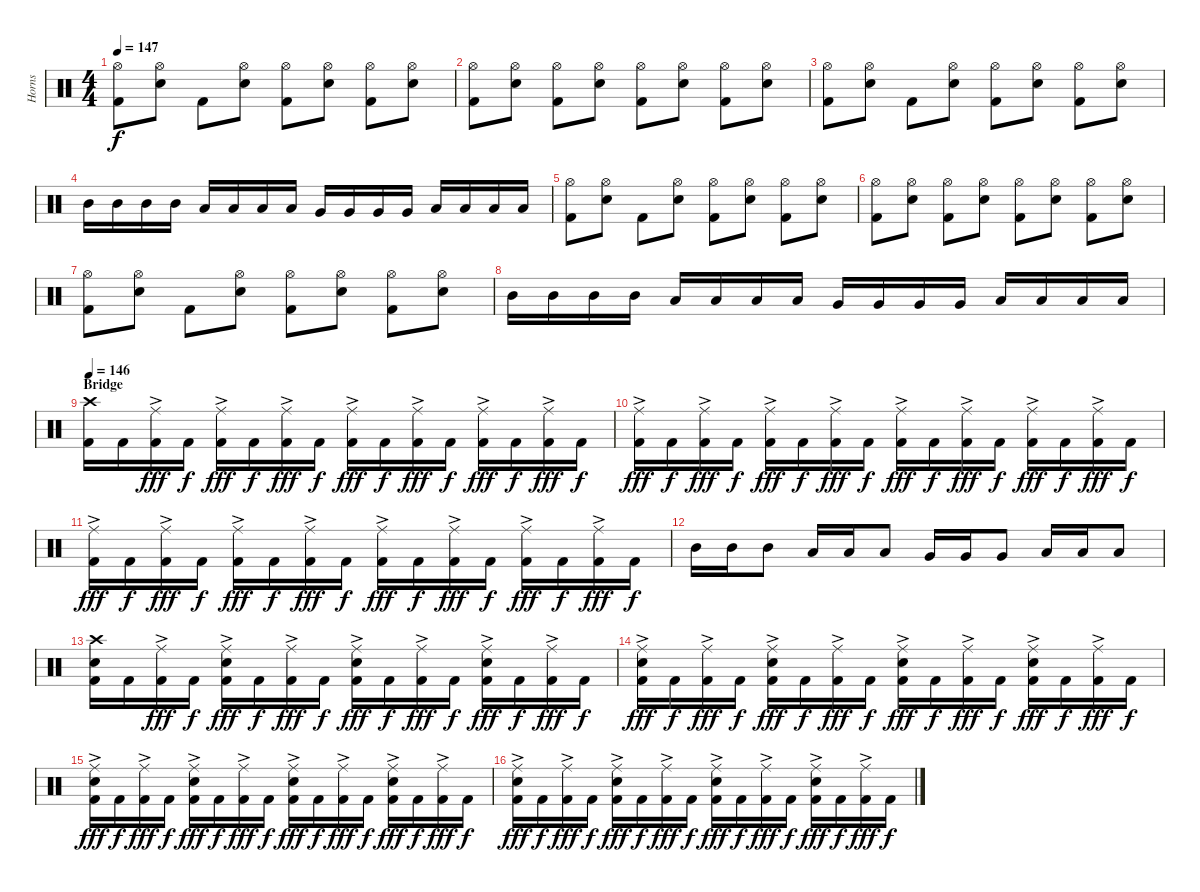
\track ("Horns" "Horns") {instrument percussion}
\staff {score}
\articulation defaults
\ts (4 4)
\tempo 147
\clef neutral
\ks c
("Hi-Hat (open)" "Kick (hit) 2").8{dy f} ("Hi-Hat (open)" "Snare (hit) 2").8 "Kick (hit) 2".8 ("Hi-Hat (open)" "Snare (hit) 2").8 ("Hi-Hat (open)" "Kick (hit) 2").8 ("Hi-Hat (open)" "Snare (hit) 2").8 ("Hi-Hat (open)" "Kick (hit) 2").8 ("Hi-Hat (open)" "Snare (hit) 2").8 |
("Hi-Hat (open)" "Kick (hit) 2").8 ("Hi-Hat (open)" "Snare (hit) 2").8 ("Hi-Hat (open)" "Kick (hit) 2").8 ("Hi-Hat (open)" "Snare (hit) 2").8 ("Hi-Hat (open)" "Kick (hit) 2").8 ("Hi-Hat (open)" "Snare (hit) 2").8 ("Hi-Hat (open)" "Kick (hit) 2").8 ("Hi-Hat (open)" "Snare (hit) 2").8 |
("Hi-Hat (open)" "Kick (hit) 2").8 ("Hi-Hat (open)" "Snare (hit) 2").8 "Kick (hit) 2".8 ("Hi-Hat (open)" "Snare (hit) 2").8 ("Hi-Hat (open)" "Kick (hit) 2").8 ("Hi-Hat (open)" "Snare (hit) 2").8 ("Hi-Hat (open)" "Kick (hit) 2").8 ("Hi-Hat (open)" "Snare (hit) 2").8 |
"Mid Tom (hit)".16 "Mid Tom (hit)".16 "Mid Tom (hit)".16 "Mid Tom (hit)".16 "Low Tom (hit)".16 "Low Tom (hit)".16 "Low Tom (hit)".16 "Low Tom (hit)".16 "Very Low Tom (hit)".16 "Very Low Tom (hit)".16 "Very Low Tom (hit)".16 "Very Low Tom (hit)".16 "Low Floor Tom (hit)".16 "Low Floor Tom (hit)".16 "Low Floor Tom (hit)".16 "Low Floor Tom (hit)".16 |
("Hi-Hat (open)" "Kick (hit) 2").8 ("Hi-Hat (open)" "Snare (hit) 2").8 "Kick (hit) 2".8 ("Hi-Hat (open)" "Snare (hit) 2").8 ("Hi-Hat (open)" "Kick (hit) 2").8 ("Hi-Hat (open)" "Snare (hit) 2").8 ("Hi-Hat (open)" "Kick (hit) 2").8 ("Hi-Hat (open)" "Snare (hit) 2").8 |
("Hi-Hat (open)" "Kick (hit) 2").8 ("Hi-Hat (open)" "Snare (hit) 2").8 ("Hi-Hat (open)" "Kick (hit) 2").8 ("Hi-Hat (open)" "Snare (hit) 2").8 ("Hi-Hat (open)" "Kick (hit) 2").8 ("Hi-Hat (open)" "Snare (hit) 2").8 ("Hi-Hat (open)" "Kick (hit) 2").8 ("Hi-Hat (open)" "Snare (hit) 2").8 |
("Hi-Hat (open)" "Kick (hit) 2").8 ("Hi-Hat (open)" "Snare (hit) 2").8 "Kick (hit) 2".8 ("Hi-Hat (open)" "Snare (hit) 2").8 ("Hi-Hat (open)" "Kick (hit) 2").8 ("Hi-Hat (open)" "Snare (hit) 2").8 ("Hi-Hat (open)" "Kick (hit) 2").8 ("Hi-Hat (open)" "Snare (hit) 2").8 |
"Mid Tom (hit)".16 "Mid Tom (hit)".16 "Mid Tom (hit)".16 "Mid Tom (hit)".16 "Low Tom (hit)".16 "Low Tom (hit)".16 "Low Tom (hit)".16 "Low Tom (hit)".16 "Very Low Tom (hit)".16 "Very Low Tom (hit)".16 "Very Low Tom (hit)".16 "Very Low Tom (hit)".16 "Low Floor Tom (hit)".16 "Low Floor Tom (hit)".16 "Low Floor Tom (hit)".16 "Low Floor Tom (hit)".16 |
\section ("" "Bridge")
\tempo 146
("Crash high (hit)" "Kick (hit) 2").16 "Kick (hit) 2".16 ("Ride (middle)"{ac} "Kick (hit) 2").16{dy fff} "Kick (hit) 2".16{dy f} ("Ride (middle)"{ac} "Kick (hit) 2").16{dy fff} "Kick (hit) 2".16{dy f} ("Ride (middle)"{ac} "Kick (hit) 2").16{dy fff} "Kick (hit) 2".16{dy f} ("Ride (middle)"{ac} "Kick (hit) 2").16{dy fff} "Kick (hit) 2".16{dy f} ("Ride (middle)"{ac} "Kick (hit) 2").16{dy fff} "Kick (hit) 2".16{dy f} ("Ride (middle)"{ac} "Kick (hit) 2").16{dy fff} "Kick (hit) 2".16{dy f} ("Ride (middle)"{ac} "Kick (hit) 2").16{dy fff} "Kick (hit) 2".16{dy f} |
("Ride (middle)"{ac} "Kick (hit) 2").16{dy fff} "Kick (hit) 2".16{dy f} ("Ride (middle)"{ac} "Kick (hit) 2").16{dy fff} "Kick (hit) 2".16{dy f} ("Ride (middle)"{ac} "Kick (hit) 2").16{dy fff} "Kick (hit) 2".16{dy f} ("Ride (middle)"{ac} "Kick (hit) 2").16{dy fff} "Kick (hit) 2".16{dy f} ("Ride (middle)"{ac} "Kick (hit) 2").16{dy fff} "Kick (hit) 2".16{dy f} ("Ride (middle)"{ac} "Kick (hit) 2").16{dy fff} "Kick (hit) 2".16{dy f} ("Ride (middle)"{ac} "Kick (hit) 2").16{dy fff} "Kick (hit) 2".16{dy f} ("Ride (middle)"{ac} "Kick (hit) 2").16{dy fff} "Kick (hit) 2".16{dy f} |
("Ride (middle)"{ac} "Kick (hit) 2").16{dy fff} "Kick (hit) 2".16{dy f} ("Ride (middle)"{ac} "Kick (hit) 2").16{dy fff} "Kick (hit) 2".16{dy f} ("Ride (middle)"{ac} "Kick (hit) 2").16{dy fff} "Kick (hit) 2".16{dy f} ("Ride (middle)"{ac} "Kick (hit) 2").16{dy fff} "Kick (hit) 2".16{dy f} ("Ride (middle)"{ac} "Kick (hit) 2").16{dy fff} "Kick (hit) 2".16{dy f} ("Ride (middle)"{ac} "Kick (hit) 2").16{dy fff} "Kick (hit) 2".16{dy f} ("Ride (middle)"{ac} "Kick (hit) 2").16{dy fff} "Kick (hit) 2".16{dy f} ("Ride (middle)"{ac} "Kick (hit) 2").16{dy fff} "Kick (hit) 2".16{dy f} |
"Mid Tom (hit)".16 "Mid Tom (hit)".16 "Mid Tom (hit)".8 "Low Tom (hit)".16 "Low Tom (hit)".16 "Low Tom (hit)".8 "Very Low Tom (hit)".16 "Very Low Tom (hit)".16 "Very Low Tom (hit)".8 "Low Floor Tom (hit)".16 "Low Floor Tom (hit)".16 "Low Floor Tom (hit)".8 |
("Crash high (hit)" "Snare (hit) 2" "Kick (hit) 2").16 "Kick (hit) 2".16 ("Ride (middle)"{ac} "Kick (hit) 2").16{dy fff} "Kick (hit) 2".16{dy f} ("Ride (middle)"{ac} "Snare (hit) 2" "Kick (hit) 2").16{dy fff} "Kick (hit) 2".16{dy f} ("Ride (middle)"{ac} "Kick (hit) 2").16{dy fff} "Kick (hit) 2".16{dy f} ("Ride (middle)"{ac} "Snare (hit) 2" "Kick (hit) 2").16{dy fff} "Kick (hit) 2".16{dy f} ("Ride (middle)"{ac} "Kick (hit) 2").16{dy fff} "Kick (hit) 2".16{dy f} ("Ride (middle)"{ac} "Snare (hit) 2" "Kick (hit) 2").16{dy fff} "Kick (hit) 2".16{dy f} ("Ride (middle)"{ac} "Kick (hit) 2").16{dy fff} "Kick (hit) 2".16{dy f} |
("Ride (middle)"{ac} "Snare (hit) 2" "Kick (hit) 2").16{dy fff} "Kick (hit) 2".16{dy f} ("Ride (middle)"{ac} "Kick (hit) 2").16{dy fff} "Kick (hit) 2".16{dy f} ("Ride (middle)"{ac} "Snare (hit) 2" "Kick (hit) 2").16{dy fff} "Kick (hit) 2".16{dy f} ("Ride (middle)"{ac} "Kick (hit) 2").16{dy fff} "Kick (hit) 2".16{dy f} ("Ride (middle)"{ac} "Snare (hit) 2" "Kick (hit) 2").16{dy fff} "Kick (hit) 2".16{dy f} ("Ride (middle)"{ac} "Kick (hit) 2").16{dy fff} "Kick (hit) 2".16{dy f} ("Ride (middle)"{ac} "Snare (hit) 2" "Kick (hit) 2").16{dy fff} "Kick (hit) 2".16{dy f} ("Ride (middle)"{ac} "Kick (hit) 2").16{dy fff} "Kick (hit) 2".16{dy f} |
("Ride (middle)"{ac} "Snare (hit) 2" "Kick (hit) 2").16{dy fff} "Kick (hit) 2".16{dy f} ("Ride (middle)"{ac} "Kick (hit) 2").16{dy fff} "Kick (hit) 2".16{dy f} ("Ride (middle)"{ac} "Snare (hit) 2" "Kick (hit) 2").16{dy fff} "Kick (hit) 2".16{dy f} ("Ride (middle)"{ac} "Kick (hit) 2").16{dy fff} "Kick (hit) 2".16{dy f} ("Ride (middle)"{ac} "Snare (hit) 2" "Kick (hit) 2").16{dy fff} "Kick (hit) 2".16{dy f} ("Ride (middle)"{ac} "Kick (hit) 2").16{dy fff} "Kick (hit) 2".16{dy f} ("Ride (middle)"{ac} "Snare (hit) 2" "Kick (hit) 2").16{dy fff} "Kick (hit) 2".16{dy f} ("Ride (middle)"{ac} "Kick (hit) 2").16{dy fff} "Kick (hit) 2".16{dy f} |
("Ride (middle)"{ac} "Snare (hit) 2" "Kick (hit) 2").16{dy fff} "Kick (hit) 2".16{dy f} ("Ride (middle)"{ac} "Kick (hit) 2").16{dy fff} "Kick (hit) 2".16{dy f} ("Ride (middle)"{ac} "Snare (hit) 2" "Kick (hit) 2").16{dy fff} "Kick (hit) 2".16{dy f} ("Ride (middle)"{ac} "Kick (hit) 2").16{dy fff} "Kick (hit) 2".16{dy f} ("Ride (middle)"{ac} "Snare (hit) 2" "Kick (hit) 2").16{dy fff} "Kick (hit) 2".16{dy f} ("Ride (middle)"{ac} "Kick (hit) 2").16{dy fff} "Kick (hit) 2".16{dy f} ("Ride (middle)"{ac} "Snare (hit) 2" "Kick (hit) 2").16{dy fff} "Kick (hit) 2".16{dy f} ("Ride (middle)"{ac} "Kick (hit) 2").16{dy fff} "Kick (hit) 2".16{dy f}
